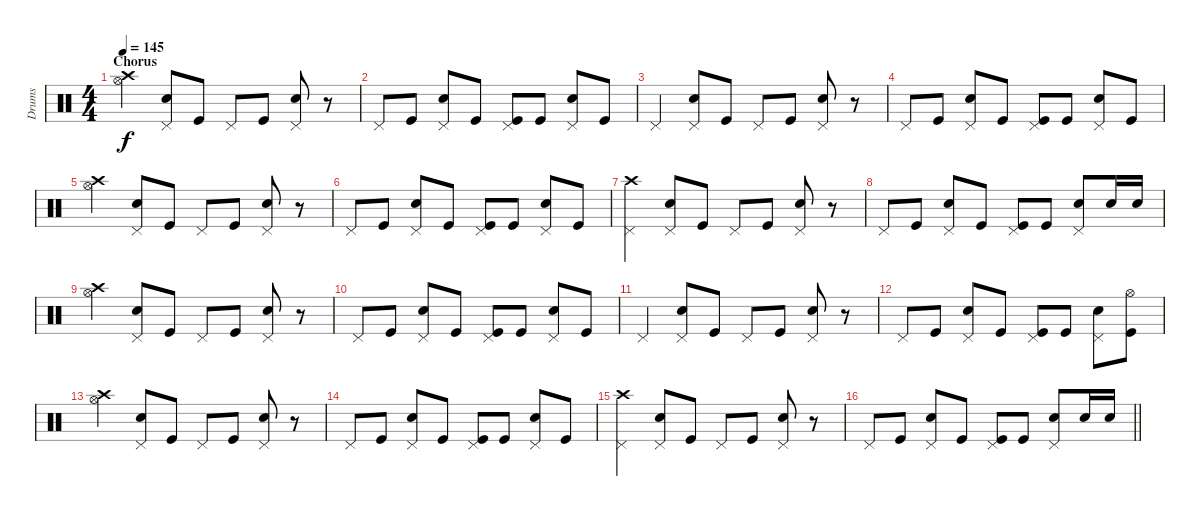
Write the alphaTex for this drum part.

\track ("Drums" "Drums") {instrument percussion}
\staff {score}
\articulation defaults
\ts (4 4)
\section ("" "Chorus")
\tempo 145
\clef neutral
\ks c
("Crash high (hit)" "Hi-Hat (open)").4{dy f} ("Pedal Hi-Hat (hit)" "Snare (hit) 2").8 "Kick (hit)".8 "Pedal Hi-Hat (hit)".8 "Kick (hit)".8 ("Pedal Hi-Hat (hit)" "Snare (hit) 2").8 r.8 |
"Pedal Hi-Hat (hit)".8 "Kick (hit)".8 ("Pedal Hi-Hat (hit)" "Snare (hit) 2").8 "Kick (hit)".8 ("Pedal Hi-Hat (hit)" "Kick (hit)").8 "Kick (hit)".8 ("Pedal Hi-Hat (hit)" "Snare (hit) 2").8 "Kick (hit)".8 |
"Pedal Hi-Hat (hit)".4 ("Pedal Hi-Hat (hit)" "Snare (hit) 2").8 "Kick (hit)".8 "Pedal Hi-Hat (hit)".8 "Kick (hit)".8 ("Pedal Hi-Hat (hit)" "Snare (hit) 2").8 r.8 |
"Pedal Hi-Hat (hit)".8 "Kick (hit)".8 ("Pedal Hi-Hat (hit)" "Snare (hit) 2").8 "Kick (hit)".8 ("Pedal Hi-Hat (hit)" "Kick (hit)").8 "Kick (hit)".8 ("Pedal Hi-Hat (hit)" "Snare (hit) 2").8 "Kick (hit)".8 |
("Crash high (hit)" "Hi-Hat (open)").4 ("Pedal Hi-Hat (hit)" "Snare (hit) 2").8 "Kick (hit)".8 "Pedal Hi-Hat (hit)".8 "Kick (hit)".8 ("Pedal Hi-Hat (hit)" "Snare (hit) 2").8 r.8 |
"Pedal Hi-Hat (hit)".8 "Kick (hit)".8 ("Pedal Hi-Hat (hit)" "Snare (hit) 2").8 "Kick (hit)".8 ("Pedal Hi-Hat (hit)" "Kick (hit)").8 "Kick (hit)".8 ("Pedal Hi-Hat (hit)" "Snare (hit) 2").8 "Kick (hit)".8 |
("Crash high (hit)" "Pedal Hi-Hat (hit)").4 ("Pedal Hi-Hat (hit)" "Snare (hit) 2").8 "Kick (hit)".8 "Pedal Hi-Hat (hit)".8 "Kick (hit)".8 ("Pedal Hi-Hat (hit)" "Snare (hit) 2").8 r.8 |
"Pedal Hi-Hat (hit)".8 "Kick (hit)".8 ("Pedal Hi-Hat (hit)" "Snare (hit) 2").8 "Kick (hit)".8 ("Pedal Hi-Hat (hit)" "Kick (hit)").8 "Kick (hit)".8 ("Pedal Hi-Hat (hit)" "Snare (hit) 2").8 "Snare (hit) 2".16 "Snare (hit) 2".16 |
("Crash high (hit)" "Hi-Hat (open)").4 ("Pedal Hi-Hat (hit)" "Snare (hit) 2").8 "Kick (hit)".8 "Pedal Hi-Hat (hit)".8 "Kick (hit)".8 ("Pedal Hi-Hat (hit)" "Snare (hit) 2").8 r.8 |
"Pedal Hi-Hat (hit)".8 "Kick (hit)".8 ("Pedal Hi-Hat (hit)" "Snare (hit) 2").8 "Kick (hit)".8 ("Pedal Hi-Hat (hit)" "Kick (hit)").8 "Kick (hit)".8 ("Pedal Hi-Hat (hit)" "Snare (hit) 2").8 "Kick (hit)".8 |
"Pedal Hi-Hat (hit)".4 ("Pedal Hi-Hat (hit)" "Snare (hit) 2").8 "Kick (hit)".8 "Pedal Hi-Hat (hit)".8 "Kick (hit)".8 ("Pedal Hi-Hat (hit)" "Snare (hit) 2").8 r.8 |
"Pedal Hi-Hat (hit)".8 "Kick (hit)".8 ("Pedal Hi-Hat (hit)" "Snare (hit) 2").8 "Kick (hit)".8 ("Pedal Hi-Hat (hit)" "Kick (hit)").8 "Kick (hit)".8 ("Pedal Hi-Hat (hit)" "Snare (hit) 2").8 ("Hi-Hat (open)" "Kick (hit)").8 |
("Crash high (hit)" "Hi-Hat (open)").4 ("Pedal Hi-Hat (hit)" "Snare (hit) 2").8 "Kick (hit)".8 "Pedal Hi-Hat (hit)".8 "Kick (hit)".8 ("Pedal Hi-Hat (hit)" "Snare (hit) 2").8 r.8 |
"Pedal Hi-Hat (hit)".8 "Kick (hit)".8 ("Pedal Hi-Hat (hit)" "Snare (hit) 2").8 "Kick (hit)".8 ("Pedal Hi-Hat (hit)" "Kick (hit)").8 "Kick (hit)".8 ("Pedal Hi-Hat (hit)" "Snare (hit) 2").8 "Kick (hit)".8 |
("Crash high (hit)" "Pedal Hi-Hat (hit)").4 ("Pedal Hi-Hat (hit)" "Snare (hit) 2").8 "Kick (hit)".8 "Pedal Hi-Hat (hit)".8 "Kick (hit)".8 ("Pedal Hi-Hat (hit)" "Snare (hit) 2").8 r.8 |
\barLineRight lightlight "Pedal Hi-Hat (hit)".8 "Kick (hit)".8
("Pedal Hi-Hat (hit)" "Snare (hit) 2").8 "Kick (hit)".8 ("Pedal Hi-Hat (hit)" "Kick (hit)").8 "Kick (hit)".8 ("Pedal Hi-Hat (hit)" "Snare (hit) 2").8 "Snare (hit) 2".16 "Snare (hit) 2".16
